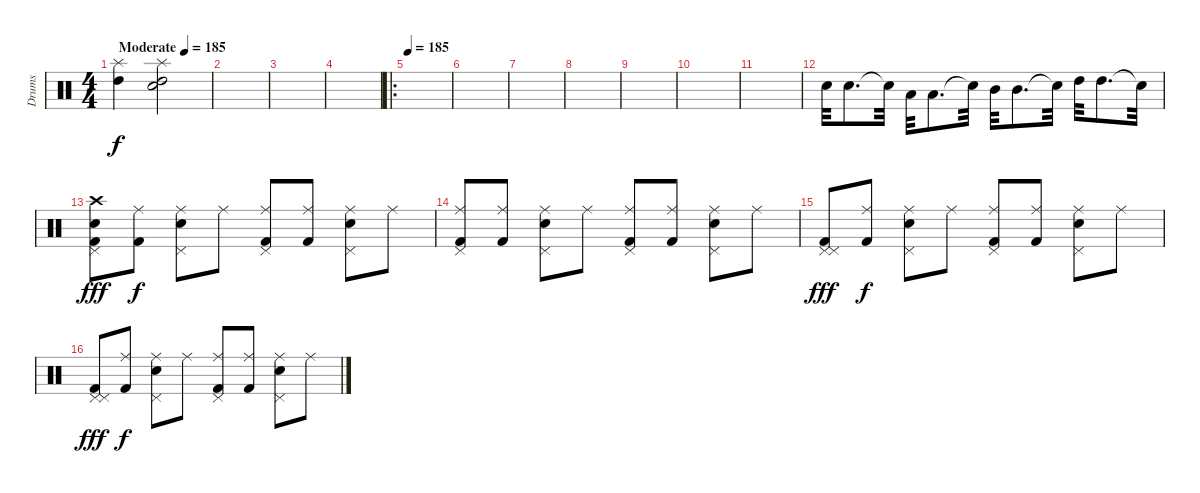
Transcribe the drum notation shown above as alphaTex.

\track ("Drums" "Drums") {instrument percussion}
\staff {score}
\articulation defaults
\ts (4 4)
\tempo (185 "Moderate")
\tempo 220
\tempo (185 "Moderate")
\clef neutral
\ks c
("Splash (hit)" "High Tom (hit)").4{dy f} ("Splash (hit)" "Electric Snare (hit)" "High Tom (hit)").2 |
|
|
|
\ro
\tempo 185
|
|
|
|
|
|
|
"Snare (hit) 2".32 "Snare (hit) 2".8{d} "Snare (hit)"{t}.32 "Low Tom (hit)".32 "Low Tom (hit)".8{d} "Snare (hit)"{t}.32 "Mid Tom (hit)".32 "Mid Tom (hit)".8{d} "Snare (hit)"{t}.32 "High Tom (hit)".32 "High Tom (hit)".8{d} "Snare (hit)"{t}.32 |
("Crash high (hit)" "Pedal Hi-Hat (hit)" "Snare (hit)" "Kick (hit) 2").8{dy fff} ("Ride (middle)" "Kick (hit) 2").8{dy f} ("Pedal Hi-Hat (hit)" "Ride (middle)" "Snare (hit) 2").8 "Ride (middle)".8 ("Pedal Hi-Hat (hit)" "Ride (middle)" "Kick (hit) 2").8 ("Ride (middle)" "Kick (hit) 2").8 ("Pedal Hi-Hat (hit)" "Ride (middle)" "Snare (hit) 2").8 "Ride (middle)".8 |
("Pedal Hi-Hat (hit)" "Ride (middle)" "Kick (hit) 2").8 ("Ride (middle)" "Kick (hit) 2").8 ("Pedal Hi-Hat (hit)" "Ride (middle)" "Snare (hit) 2").8 "Ride (middle)".8 ("Pedal Hi-Hat (hit)" "Ride (middle)" "Kick (hit) 2").8 ("Ride (middle)" "Kick (hit) 2").8 ("Pedal Hi-Hat (hit)" "Ride (middle)" "Snare (hit) 2").8 "Ride (middle)".8 |
("Pedal Hi-Hat (hit)" "Pedal Hi-Hat (hit)" "Kick (hit) 2").8{dy fff} ("Ride (middle)" "Kick (hit) 2").8{dy f} ("Pedal Hi-Hat (hit)" "Ride (middle)" "Snare (hit) 2").8 "Ride (middle)".8 ("Pedal Hi-Hat (hit)" "Ride (middle)" "Kick (hit) 2").8 ("Ride (middle)" "Kick (hit) 2").8 ("Pedal Hi-Hat (hit)" "Ride (middle)" "Snare (hit) 2").8 "Ride (middle)".8 |
("Pedal Hi-Hat (hit)" "Pedal Hi-Hat (hit)" "Kick (hit) 2").8{dy fff} ("Ride (middle)" "Kick (hit) 2").8{dy f} ("Pedal Hi-Hat (hit)" "Ride (middle)" "Snare (hit) 2").8 "Ride (middle)".8 ("Pedal Hi-Hat (hit)" "Ride (middle)" "Kick (hit) 2").8 ("Ride (middle)" "Kick (hit) 2").8 ("Pedal Hi-Hat (hit)" "Ride (middle)" "Snare (hit) 2").8 "Ride (middle)".8
